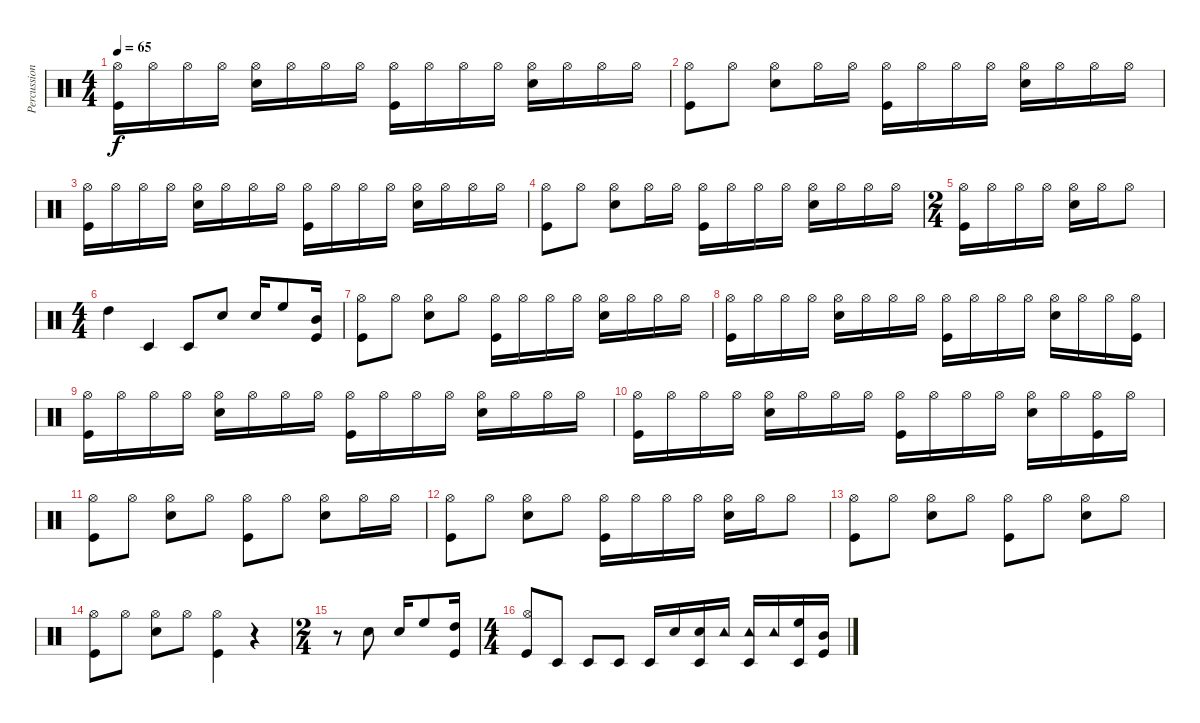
\track ("Percussions" "Percussion") {instrument percussion}
\staff {score}
\articulation defaults
\ts (4 4)
\tempo 65
\clef neutral
\ks c
("Hi-Hat (open)" "Kick (hit)").16{dy f} "Hi-Hat (open)".16 "Hi-Hat (open)".16 "Hi-Hat (open)".16 ("Hi-Hat (open)" "Snare (hit) 2").16 "Hi-Hat (open)".16 "Hi-Hat (open)".16 "Hi-Hat (open)".16 ("Hi-Hat (open)" "Kick (hit)").16 "Hi-Hat (open)".16 "Hi-Hat (open)".16 "Hi-Hat (open)".16 ("Hi-Hat (open)" "Snare (hit) 2").16 "Hi-Hat (open)".16 "Hi-Hat (open)".16 "Hi-Hat (open)".16 |
("Hi-Hat (open)" "Kick (hit)").8 "Hi-Hat (open)".8 ("Hi-Hat (open)" "Snare (hit) 2").8 "Hi-Hat (open)".16 "Hi-Hat (open)".16 ("Hi-Hat (open)" "Kick (hit)").16 "Hi-Hat (open)".16 "Hi-Hat (open)".16 "Hi-Hat (open)".16 ("Hi-Hat (open)" "Snare (hit) 2").16 "Hi-Hat (open)".16 "Hi-Hat (open)".16 "Hi-Hat (open)".16 |
("Hi-Hat (open)" "Kick (hit)").16 "Hi-Hat (open)".16 "Hi-Hat (open)".16 "Hi-Hat (open)".16 ("Hi-Hat (open)" "Snare (hit) 2").16 "Hi-Hat (open)".16 "Hi-Hat (open)".16 "Hi-Hat (open)".16 ("Hi-Hat (open)" "Kick (hit)").16 "Hi-Hat (open)".16 "Hi-Hat (open)".16 "Hi-Hat (open)".16 ("Hi-Hat (open)" "Snare (hit) 2").16 "Hi-Hat (open)".16 "Hi-Hat (open)".16 "Hi-Hat (open)".16 |
("Hi-Hat (open)" "Kick (hit)").8 "Hi-Hat (open)".8 ("Hi-Hat (open)" "Snare (hit) 2").8 "Hi-Hat (open)".16 "Hi-Hat (open)".16 ("Hi-Hat (open)" "Kick (hit)").16 "Hi-Hat (open)".16 "Hi-Hat (open)".16 "Hi-Hat (open)".16 ("Hi-Hat (open)" "Snare (hit) 2").16 "Hi-Hat (open)".16 "Hi-Hat (open)".16 "Hi-Hat (open)".16 |
\ts (2 4)
("Hi-Hat (open)" "Kick (hit)").16 "Hi-Hat (open)".16 "Hi-Hat (open)".16 "Hi-Hat (open)".16 ("Hi-Hat (open)" "Snare (hit) 2").16 "Hi-Hat (open)".16 "Hi-Hat (open)".8 |
\ts (4 4)
"High Tom (hit)".4 "Timbale low (hit)".4 "Timbale low (hit)".8 "Snare (hit) 2".8 "Snare (hit) 2".16 "High Floor Tom (hit)".8 ("Mid Tom (hit)" "Kick (hit)").16 |
("Hi-Hat (open)" "Kick (hit)").8 "Hi-Hat (open)".8 ("Hi-Hat (open)" "Snare (hit) 2").8 "Hi-Hat (open)".8 ("Hi-Hat (open)" "Kick (hit)").16 "Hi-Hat (open)".16 "Hi-Hat (open)".16 "Hi-Hat (open)".16 ("Hi-Hat (open)" "Snare (hit) 2").16 "Hi-Hat (open)".16 "Hi-Hat (open)".16 "Hi-Hat (open)".16 |
("Hi-Hat (open)" "Kick (hit)").16 "Hi-Hat (open)".16 "Hi-Hat (open)".16 "Hi-Hat (open)".16 ("Hi-Hat (open)" "Snare (hit) 2").16 "Hi-Hat (open)".16 "Hi-Hat (open)".16 "Hi-Hat (open)".16 ("Hi-Hat (open)" "Kick (hit)").16 "Hi-Hat (open)".16 "Hi-Hat (open)".16 "Hi-Hat (open)".16 ("Hi-Hat (open)" "Snare (hit) 2").16 "Hi-Hat (open)".16 "Hi-Hat (open)".16 ("Hi-Hat (open)" "Kick (hit)").16 |
("Hi-Hat (open)" "Kick (hit)").16 "Hi-Hat (open)".16 "Hi-Hat (open)".16 "Hi-Hat (open)".16 ("Hi-Hat (open)" "Snare (hit) 2").16 "Hi-Hat (open)".16 "Hi-Hat (open)".16 "Hi-Hat (open)".16 ("Hi-Hat (open)" "Kick (hit)").16 "Hi-Hat (open)".16 "Hi-Hat (open)".16 "Hi-Hat (open)".16 ("Hi-Hat (open)" "Snare (hit) 2").16 "Hi-Hat (open)".16 "Hi-Hat (open)".16 "Hi-Hat (open)".16 |
("Hi-Hat (open)" "Kick (hit)").16 "Hi-Hat (open)".16 "Hi-Hat (open)".16 "Hi-Hat (open)".16 ("Hi-Hat (open)" "Snare (hit) 2").16 "Hi-Hat (open)".16 "Hi-Hat (open)".16 "Hi-Hat (open)".16 ("Hi-Hat (open)" "Kick (hit)").16 "Hi-Hat (open)".16 "Hi-Hat (open)".16 "Hi-Hat (open)".16 ("Hi-Hat (open)" "Snare (hit) 2").16 "Hi-Hat (open)".16 ("Hi-Hat (open)" "Kick (hit)").16 "Hi-Hat (open)".16 |
("Hi-Hat (open)" "Kick (hit)").8 "Hi-Hat (open)".8 ("Hi-Hat (open)" "Snare (hit) 2").8 "Hi-Hat (open)".8 ("Hi-Hat (open)" "Kick (hit)").8 "Hi-Hat (open)".8 ("Hi-Hat (open)" "Snare (hit) 2").8 "Hi-Hat (open)".16 "Hi-Hat (open)".16 |
("Hi-Hat (open)" "Kick (hit)").8 "Hi-Hat (open)".8 ("Hi-Hat (open)" "Snare (hit) 2").8 "Hi-Hat (open)".8 ("Hi-Hat (open)" "Kick (hit)").16 "Hi-Hat (open)".16 "Hi-Hat (open)".16 "Hi-Hat (open)".16 ("Hi-Hat (open)" "Snare (hit) 2").16 "Hi-Hat (open)".16 "Hi-Hat (open)".8 |
("Hi-Hat (open)" "Kick (hit)").8 "Hi-Hat (open)".8 ("Hi-Hat (open)" "Snare (hit) 2").8 "Hi-Hat (open)".8 ("Hi-Hat (open)" "Kick (hit)").8 "Hi-Hat (open)".8 ("Hi-Hat (open)" "Snare (hit) 2").8 "Hi-Hat (open)".8 |
("Hi-Hat (open)" "Kick (hit)").8 "Hi-Hat (open)".8 ("Hi-Hat (open)" "Snare (hit) 2").8 "Hi-Hat (open)".8 ("Hi-Hat (open)" "Kick (hit)").4 r.4 |
\ts (2 4)
r.8 "Snare (hit) 2".8 "Snare (hit) 2".16 "High Floor Tom (hit)".8 ("High Tom (hit)" "Kick (hit)").16 |
\ts (4 4)
("Hi-Hat (open)" "Kick (hit)").8 "Timbale low (hit)".8 "Timbale low (hit)".8 "Timbale low (hit)".8 "Timbale low (hit)".16 "Snare (hit) 2".16 ("Snare (hit) 2" "Timbale low (hit)").16 "Tambourine (hit)".16 ("Tambourine (hit)" "Timbale low (hit)").16 "Tambourine (hit)".16 ("Timbale low (hit)" "High Floor Tom (hit)").16 ("Mid Tom (hit)" "Kick (hit)").16
